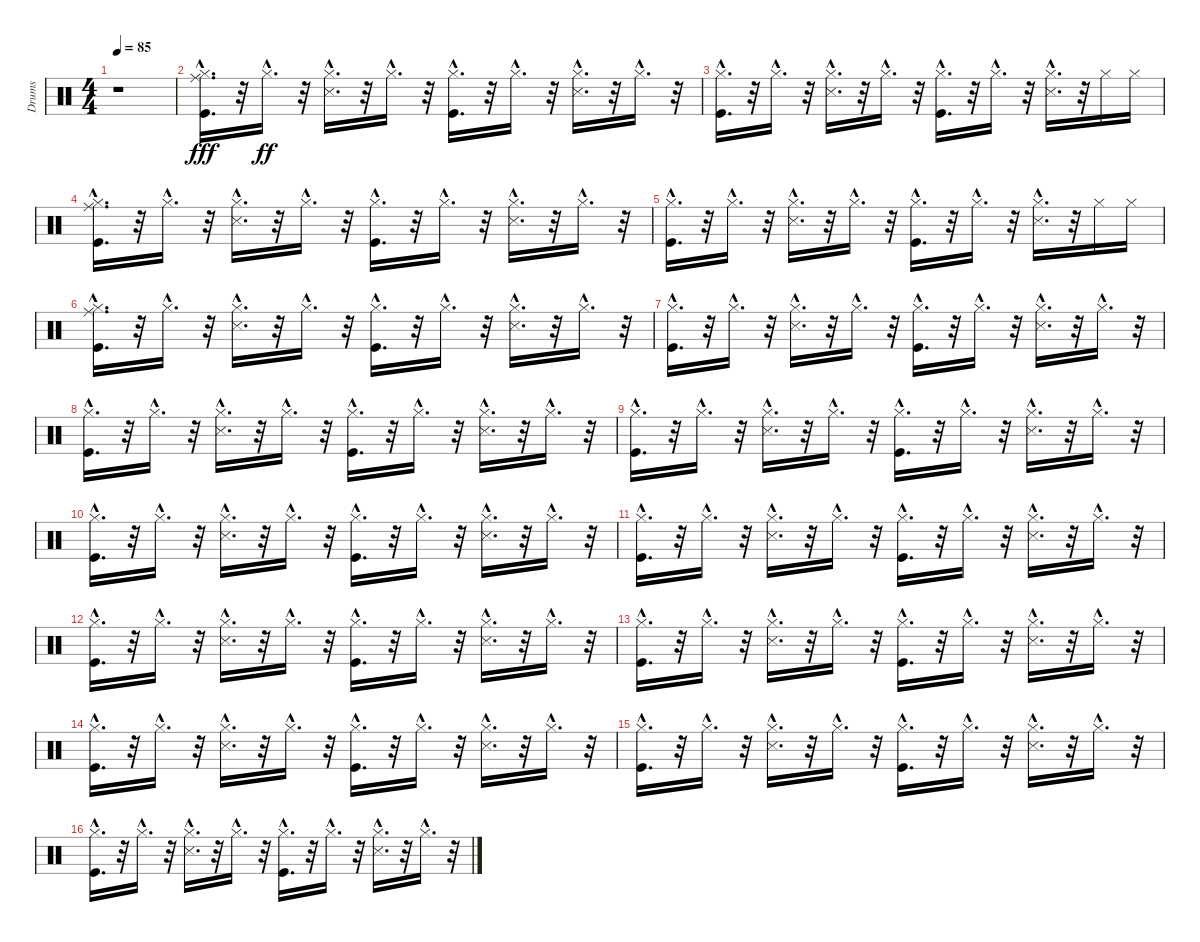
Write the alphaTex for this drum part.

\track ("Drums" "Drums") {instrument percussion}
\staff {score}
\articulation defaults
\ts (4 4)
\tempo 85
\clef neutral
\ks c
r.1{dy fff} |
("Kick (hit)"{hac} "Hi-Hat (closed)"{hac} "Ride (middle)"{hac}).16{d} r.32 "Hi-Hat (closed)"{hac}.16{d dy ff} r.32 ("Snare (side stick) 3"{hac} "Hi-Hat (closed)"{hac}).16{d} r.32 "Hi-Hat (closed)"{hac}.16{d} r.32 ("Kick (hit)"{hac} "Hi-Hat (closed)"{hac}).16{d} r.32 "Hi-Hat (closed)"{hac}.16{d} r.32 ("Snare (side stick) 3"{hac} "Hi-Hat (closed)"{hac}).16{d} r.32 "Hi-Hat (closed)"{hac}.16{d} r.32 |
("Hi-Hat (closed)"{hac} "Kick (hit)"{hac}).16{d} r.32 "Hi-Hat (closed)"{hac}.16{d} r.32 ("Hi-Hat (closed)"{hac} "Snare (side stick) 3"{hac}).16{d} r.32 "Hi-Hat (closed)"{hac}.16{d} r.32 ("Hi-Hat (closed)"{hac} "Kick (hit)"{hac}).16{d} r.32 "Hi-Hat (closed)"{hac}.16{d} r.32 ("Hi-Hat (closed)"{hac} "Snare (side stick) 3"{hac}).16{d} r.32 "Hi-Hat (closed)".16 "Hi-Hat (closed)".16 |
("Ride (middle)"{hac} "Hi-Hat (closed)"{hac} "Kick (hit)"{hac}).16{d} r.32 "Hi-Hat (closed)"{hac}.16{d} r.32 ("Hi-Hat (closed)"{hac} "Snare (side stick) 3"{hac}).16{d} r.32 "Hi-Hat (closed)"{hac}.16{d} r.32 ("Hi-Hat (closed)"{hac} "Kick (hit)"{hac}).16{d} r.32 "Hi-Hat (closed)"{hac}.16{d} r.32 ("Hi-Hat (closed)"{hac} "Snare (side stick) 3"{hac}).16{d} r.32 "Hi-Hat (closed)"{hac}.16{d} r.32 |
("Hi-Hat (closed)"{hac} "Kick (hit)"{hac}).16{d} r.32 "Hi-Hat (closed)"{hac}.16{d} r.32 ("Hi-Hat (closed)"{hac} "Snare (side stick) 3"{hac}).16{d} r.32 "Hi-Hat (closed)"{hac}.16{d} r.32 ("Hi-Hat (closed)"{hac} "Kick (hit)"{hac}).16{d} r.32 "Hi-Hat (closed)"{hac}.16{d} r.32 ("Hi-Hat (closed)"{hac} "Snare (side stick) 3"{hac}).16{d} r.32 "Hi-Hat (closed)".16 "Hi-Hat (closed)".16 |
("Ride (middle)"{hac} "Kick (hit)"{hac} "Hi-Hat (closed)"{hac}).16{d} r.32 "Hi-Hat (closed)"{hac}.16{d} r.32 ("Snare (side stick) 3"{hac} "Hi-Hat (closed)"{hac}).16{d} r.32 "Hi-Hat (closed)"{hac}.16{d} r.32 ("Kick (hit)"{hac} "Hi-Hat (closed)"{hac}).16{d} r.32 "Hi-Hat (closed)"{hac}.16{d} r.32 ("Snare (side stick) 3"{hac} "Hi-Hat (closed)"{hac}).16{d} r.32 "Hi-Hat (closed)"{hac}.16{d} r.32 |
("Hi-Hat (closed)"{hac} "Kick (hit)"{hac}).16{d} r.32 "Hi-Hat (closed)"{hac}.16{d} r.32 ("Hi-Hat (closed)"{hac} "Snare (side stick) 3"{hac}).16{d} r.32 "Hi-Hat (closed)"{hac}.16{d} r.32 ("Hi-Hat (closed)"{hac} "Kick (hit)"{hac}).16{d} r.32 "Hi-Hat (closed)"{hac}.16{d} r.32 ("Hi-Hat (closed)"{hac} "Snare (side stick) 3"{hac}).16{d} r.32 "Hi-Hat (closed)"{hac}.16{d} r.32 |
("Hi-Hat (closed)"{hac} "Kick (hit)"{hac}).16{d} r.32 "Hi-Hat (closed)"{hac}.16{d} r.32 ("Hi-Hat (closed)"{hac} "Snare (side stick) 3"{hac}).16{d} r.32 "Hi-Hat (closed)"{hac}.16{d} r.32 ("Hi-Hat (closed)"{hac} "Kick (hit)"{hac}).16{d} r.32 "Hi-Hat (closed)"{hac}.16{d} r.32 ("Hi-Hat (closed)"{hac} "Snare (side stick) 3"{hac}).16{d} r.32 "Hi-Hat (closed)"{hac}.16{d} r.32 |
("Kick (hit)"{hac} "Hi-Hat (closed)"{hac}).16{d} r.32 "Hi-Hat (closed)"{hac}.16{d} r.32 ("Snare (side stick) 3"{hac} "Hi-Hat (closed)"{hac}).16{d} r.32 "Hi-Hat (closed)"{hac}.16{d} r.32 ("Kick (hit)"{hac} "Hi-Hat (closed)"{hac}).16{d} r.32 "Hi-Hat (closed)"{hac}.16{d} r.32 ("Snare (side stick) 3"{hac} "Hi-Hat (closed)"{hac}).16{d} r.32 "Hi-Hat (closed)"{hac}.16{d} r.32 |
("Kick (hit)"{hac} "Hi-Hat (closed)"{hac}).16{d} r.32 "Hi-Hat (closed)"{hac}.16{d} r.32 ("Snare (side stick) 3"{hac} "Hi-Hat (closed)"{hac}).16{d} r.32 "Hi-Hat (closed)"{hac}.16{d} r.32 ("Kick (hit)"{hac} "Hi-Hat (closed)"{hac}).16{d} r.32 "Hi-Hat (closed)"{hac}.16{d} r.32 ("Snare (side stick) 3"{hac} "Hi-Hat (closed)"{hac}).16{d} r.32 "Hi-Hat (closed)"{hac}.16{d} r.32 |
("Kick (hit)"{hac} "Hi-Hat (closed)"{hac}).16{d} r.32 "Hi-Hat (closed)"{hac}.16{d} r.32 ("Snare (side stick) 3"{hac} "Hi-Hat (closed)"{hac}).16{d} r.32 "Hi-Hat (closed)"{hac}.16{d} r.32 ("Kick (hit)"{hac} "Hi-Hat (closed)"{hac}).16{d} r.32 "Hi-Hat (closed)"{hac}.16{d} r.32 ("Snare (side stick) 3"{hac} "Hi-Hat (closed)"{hac}).16{d} r.32 "Hi-Hat (closed)"{hac}.16{d} r.32 |
("Kick (hit)"{hac} "Hi-Hat (closed)"{hac}).16{d} r.32 "Hi-Hat (closed)"{hac}.16{d} r.32 ("Snare (side stick) 3"{hac} "Hi-Hat (closed)"{hac}).16{d} r.32 "Hi-Hat (closed)"{hac}.16{d} r.32 ("Kick (hit)"{hac} "Hi-Hat (closed)"{hac}).16{d} r.32 "Hi-Hat (closed)"{hac}.16{d} r.32 ("Snare (side stick) 3"{hac} "Hi-Hat (closed)"{hac}).16{d} r.32 "Hi-Hat (closed)"{hac}.16{d} r.32 |
("Kick (hit)"{hac} "Hi-Hat (closed)"{hac}).16{d} r.32 "Hi-Hat (closed)"{hac}.16{d} r.32 ("Snare (side stick) 3"{hac} "Hi-Hat (closed)"{hac}).16{d} r.32 "Hi-Hat (closed)"{hac}.16{d} r.32 ("Kick (hit)"{hac} "Hi-Hat (closed)"{hac}).16{d} r.32 "Hi-Hat (closed)"{hac}.16{d} r.32 ("Snare (side stick) 3"{hac} "Hi-Hat (closed)"{hac}).16{d} r.32 "Hi-Hat (closed)"{hac}.16{d} r.32 |
("Kick (hit)"{hac} "Hi-Hat (closed)"{hac}).16{d} r.32 "Hi-Hat (closed)"{hac}.16{d} r.32 ("Snare (side stick) 3"{hac} "Hi-Hat (closed)"{hac}).16{d} r.32 "Hi-Hat (closed)"{hac}.16{d} r.32 ("Kick (hit)"{hac} "Hi-Hat (closed)"{hac}).16{d} r.32 "Hi-Hat (closed)"{hac}.16{d} r.32 ("Snare (side stick) 3"{hac} "Hi-Hat (closed)"{hac}).16{d} r.32 "Hi-Hat (closed)"{hac}.16{d} r.32 |
("Kick (hit)"{hac} "Hi-Hat (closed)"{hac}).16{d} r.32 "Hi-Hat (closed)"{hac}.16{d} r.32 ("Snare (side stick) 3"{hac} "Hi-Hat (closed)"{hac}).16{d} r.32 "Hi-Hat (closed)"{hac}.16{d} r.32 ("Kick (hit)"{hac} "Hi-Hat (closed)"{hac}).16{d} r.32 "Hi-Hat (closed)"{hac}.16{d} r.32 ("Snare (side stick) 3"{hac} "Hi-Hat (closed)"{hac}).16{d} r.32 "Hi-Hat (closed)"{hac}.16{d} r.32 |
("Kick (hit)"{hac} "Hi-Hat (closed)"{hac}).16{d} r.32 "Hi-Hat (closed)"{hac}.16{d} r.32 ("Snare (side stick) 3"{hac} "Hi-Hat (closed)"{hac}).16{d} r.32 "Hi-Hat (closed)"{hac}.16{d} r.32 ("Kick (hit)"{hac} "Hi-Hat (closed)"{hac}).16{d} r.32 "Hi-Hat (closed)"{hac}.16{d} r.32 ("Snare (side stick) 3"{hac} "Hi-Hat (closed)"{hac}).16{d} r.32 "Hi-Hat (closed)"{hac}.16{d} r.32
